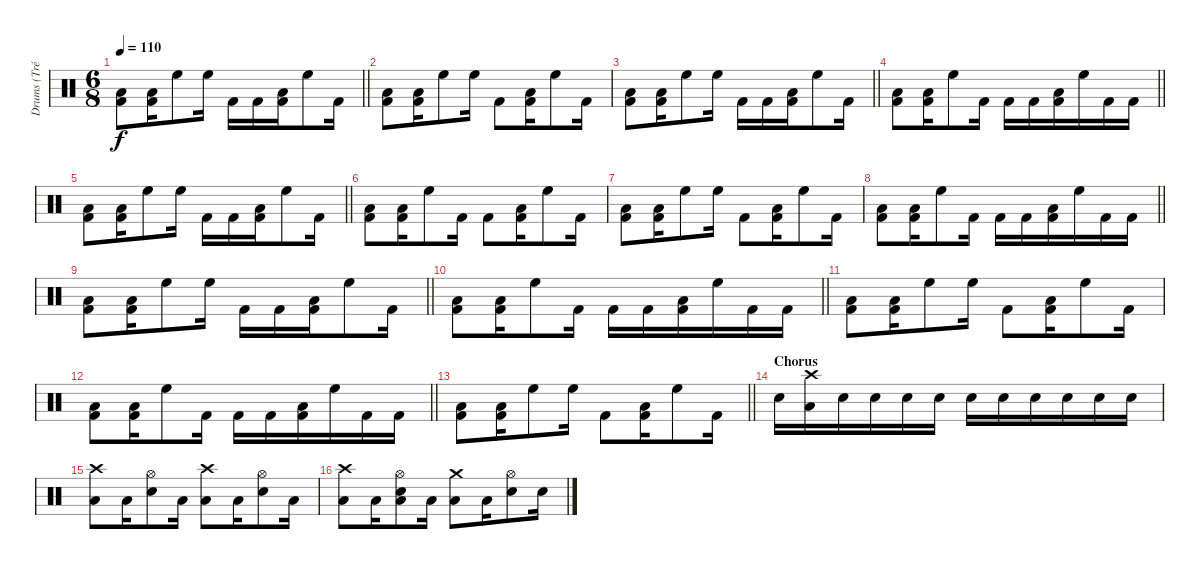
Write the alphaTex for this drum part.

\track ("Drums (Tré Cool)" "Drums (Tré") {instrument percussion}
\staff {score}
\articulation defaults
\ts (6 8)
\tempo 110
\clef neutral
\barLineRight lightlight
\ks c
("Kick (hit) 2" "Low Floor Tom (hit)").8{dy f} ("Kick (hit) 2" "Low Floor Tom (hit)").16 "High Floor Tom (hit)".8 "High Floor Tom (hit)".16 "Kick (hit) 2".16 "Kick (hit) 2".16 ("Kick (hit) 2" "Low Floor Tom (hit)").16 "High Floor Tom (hit)".8 "Kick (hit) 2".16 |
("Kick (hit) 2" "Low Floor Tom (hit)").8 ("Kick (hit) 2" "Low Floor Tom (hit)").16 "High Floor Tom (hit)".8 "High Floor Tom (hit)".16 "Kick (hit) 2".8 ("Kick (hit) 2" "Low Floor Tom (hit)").16 "High Floor Tom (hit)".8 "Kick (hit) 2".16 |
\barLineRight lightlight
("Kick (hit) 2" "Low Floor Tom (hit)").8 ("Kick (hit) 2" "Low Floor Tom (hit)").16 "High Floor Tom (hit)".8 "High Floor Tom (hit)".16 "Kick (hit) 2".16 "Kick (hit) 2".16 ("Kick (hit) 2" "Low Floor Tom (hit)").16 "High Floor Tom (hit)".8 "Kick (hit) 2".16 |
\barLineRight lightlight
("Kick (hit) 2" "Low Floor Tom (hit)").8 ("Kick (hit) 2" "Low Floor Tom (hit)").16 "High Floor Tom (hit)".8 "Kick (hit) 2".16 "Kick (hit) 2".16 "Kick (hit) 2".16 ("Kick (hit) 2" "Low Floor Tom (hit)").16 "High Floor Tom (hit)".16 "Kick (hit) 2".16 "Kick (hit) 2".16 |
\barLineRight lightlight
("Kick (hit) 2" "Low Floor Tom (hit)").8 ("Kick (hit) 2" "Low Floor Tom (hit)").16 "High Floor Tom (hit)".8 "High Floor Tom (hit)".16 "Kick (hit) 2".16 "Kick (hit) 2".16 ("Kick (hit) 2" "Low Floor Tom (hit)").16 "High Floor Tom (hit)".8 "Kick (hit) 2".16 |
("Kick (hit) 2" "Low Floor Tom (hit)").8 ("Kick (hit) 2" "Low Floor Tom (hit)").16 "High Floor Tom (hit)".8 "Kick (hit) 2".16 "Kick (hit) 2".8 ("Kick (hit) 2" "Low Floor Tom (hit)").16 "High Floor Tom (hit)".8 "Kick (hit) 2".16 |
("Kick (hit) 2" "Low Floor Tom (hit)").8 ("Kick (hit) 2" "Low Floor Tom (hit)").16 "High Floor Tom (hit)".8 "High Floor Tom (hit)".16 "Kick (hit) 2".8 ("Kick (hit) 2" "Low Floor Tom (hit)").16 "High Floor Tom (hit)".8 "Kick (hit) 2".16 |
\barLineRight lightlight
("Kick (hit) 2" "Low Floor Tom (hit)").8 ("Kick (hit) 2" "Low Floor Tom (hit)").16 "High Floor Tom (hit)".8 "Kick (hit) 2".16 "Kick (hit) 2".16 "Kick (hit) 2".16 ("Kick (hit) 2" "Low Floor Tom (hit)").16 "High Floor Tom (hit)".16 "Kick (hit) 2".16 "Kick (hit) 2".16 |
\barLineRight lightlight
("Kick (hit) 2" "Low Floor Tom (hit)").8 ("Kick (hit) 2" "Low Floor Tom (hit)").16 "High Floor Tom (hit)".8 "High Floor Tom (hit)".16 "Kick (hit) 2".16 "Kick (hit) 2".16 ("Kick (hit) 2" "Low Floor Tom (hit)").16 "High Floor Tom (hit)".8 "Kick (hit) 2".16 |
\barLineRight lightlight
("Kick (hit) 2" "Low Floor Tom (hit)").8 ("Kick (hit) 2" "Low Floor Tom (hit)").16 "High Floor Tom (hit)".8 "Kick (hit) 2".16 "Kick (hit) 2".16 "Kick (hit) 2".16 ("Kick (hit) 2" "Low Floor Tom (hit)").16 "High Floor Tom (hit)".16 "Kick (hit) 2".16 "Kick (hit) 2".16 |
("Kick (hit) 2" "Low Floor Tom (hit)").8 ("Kick (hit) 2" "Low Floor Tom (hit)").16 "High Floor Tom (hit)".8 "High Floor Tom (hit)".16 "Kick (hit) 2".8 ("Kick (hit) 2" "Low Floor Tom (hit)").16 "High Floor Tom (hit)".8 "Kick (hit) 2".16 |
\barLineRight lightlight
("Kick (hit) 2" "Low Floor Tom (hit)").8 ("Kick (hit) 2" "Low Floor Tom (hit)").16 "High Floor Tom (hit)".8 "Kick (hit) 2".16 "Kick (hit) 2".16 "Kick (hit) 2".16 ("Kick (hit) 2" "Low Floor Tom (hit)").16 "High Floor Tom (hit)".16 "Kick (hit) 2".16 "Kick (hit) 2".16 |
\barLineRight lightlight
("Kick (hit) 2" "Low Floor Tom (hit)").8 ("Kick (hit) 2" "Low Floor Tom (hit)").16 "High Floor Tom (hit)".8 "High Floor Tom (hit)".16 "Kick (hit) 2".8 ("Kick (hit) 2" "Low Floor Tom (hit)").16 "High Floor Tom (hit)".8 "Kick (hit) 2".16 |
\section ("" "Chorus")
"Electric Snare (hit)".16 ("Crash high (hit)" "Low Floor Tom (hit)").16 "Electric Snare (hit)".16 "Electric Snare (hit)".16 "Electric Snare (hit)".16 "Electric Snare (hit)".16 "Electric Snare (hit)".16 "Electric Snare (hit)".16 "Electric Snare (hit)".16 "Electric Snare (hit)".16 "Electric Snare (hit)".16 "Electric Snare (hit)".16 |
("Crash high (hit)" "Low Floor Tom (hit)").8 "Low Floor Tom (hit)".16 ("Hi-Hat (open)" "Electric Snare (hit)").8 "Low Floor Tom (hit)".16 ("Crash high (hit)" "Low Floor Tom (hit)").8 "Low Floor Tom (hit)".16 ("Hi-Hat (open)" "Electric Snare (hit)").8 "Low Floor Tom (hit)".16 |
("Crash high (hit)" "Low Floor Tom (hit)").8 "Low Floor Tom (hit)".16 ("Hi-Hat (open)" "Electric Snare (hit)" "Low Floor Tom (hit)").8 "Low Floor Tom (hit)".16 ("Crash medium (hit)" "Low Floor Tom (hit)").8 "Low Floor Tom (hit)".16 ("Hi-Hat (open)" "Electric Snare (hit)").8 "Electric Snare (hit)".16
